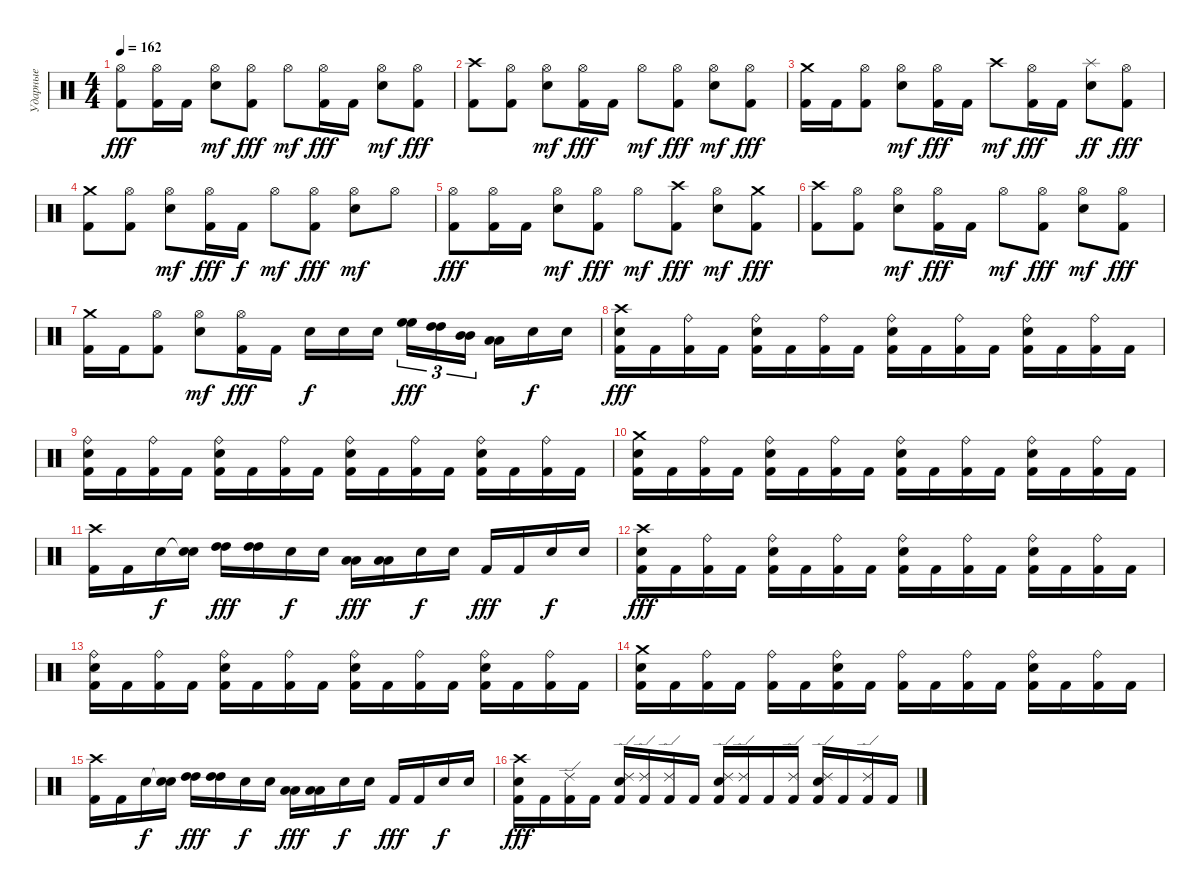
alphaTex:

\track ("Ударные" "Ударные") {instrument percussion}
\staff {score}
\articulation defaults
\ts (4 4)
\tempo 162
\clef neutral
\ks c
("Hi-Hat (open)" "Kick (hit) 2").8{dy fff} ("Hi-Hat (open)" "Kick (hit) 2").16 "Kick (hit) 2".16 ("Hi-Hat (open)" "Electric Snare (hit)").8{dy mf} ("Hi-Hat (open)" "Kick (hit) 2").8{dy fff} "Hi-Hat (open)".8{dy mf} ("Hi-Hat (open)" "Kick (hit) 2").16{dy fff} "Kick (hit) 2".16 ("Hi-Hat (open)" "Electric Snare (hit)").8{dy mf} ("Hi-Hat (open)" "Kick (hit) 2").8{dy fff} |
("Crash high (hit)" "Kick (hit) 2").8 ("Hi-Hat (open)" "Kick (hit) 2").8 ("Hi-Hat (open)" "Electric Snare (hit)").8{dy mf} ("Hi-Hat (open)" "Kick (hit) 2").16{dy fff} "Kick (hit) 2".16 "Hi-Hat (open)".8{dy mf} ("Hi-Hat (open)" "Kick (hit) 2").8{dy fff} ("Hi-Hat (open)" "Electric Snare (hit)").8{dy mf} ("Hi-Hat (open)" "Kick (hit) 2").8{dy fff} |
("Crash medium (hit)" "Kick (hit) 2").16 "Kick (hit) 2".16 ("Hi-Hat (open)" "Kick (hit) 2").8 ("Hi-Hat (open)" "Electric Snare (hit)").8{dy mf} ("Hi-Hat (open)" "Kick (hit) 2").16{dy fff} "Kick (hit) 2".16 "Crash high (hit)".8{dy mf} ("Hi-Hat (open)" "Kick (hit) 2").16{dy fff} "Kick (hit) 2".16 ("Splash (hit)" "Electric Snare (hit)").8{dy ff} ("Hi-Hat (open)" "Kick (hit) 2").8{dy fff} |
("Crash medium (hit)" "Kick (hit) 2").8 ("Hi-Hat (open)" "Kick (hit) 2").8 ("Hi-Hat (open)" "Electric Snare (hit)").8{dy mf} ("Hi-Hat (open)" "Kick (hit) 2").16{dy fff} "Kick (hit) 2".16{dy f} "Hi-Hat (open)".8{dy mf} ("Hi-Hat (open)" "Kick (hit) 2").8{dy fff} ("Hi-Hat (open)" "Electric Snare (hit)").8{dy mf} "Hi-Hat (open)".8 |
("Hi-Hat (open)" "Kick (hit) 2").8{dy fff} ("Hi-Hat (open)" "Kick (hit) 2").16 "Kick (hit) 2".16 ("Hi-Hat (open)" "Electric Snare (hit)").8{dy mf} ("Hi-Hat (open)" "Kick (hit) 2").8{dy fff} "Hi-Hat (open)".8{dy mf} ("Crash high (hit)" "Kick (hit) 2").8{dy fff} ("Hi-Hat (open)" "Electric Snare (hit)").8{dy mf} ("Crash medium (hit)" "Kick (hit) 2").8{dy fff} |
("Crash high (hit)" "Kick (hit) 2").8 ("Hi-Hat (open)" "Kick (hit) 2").8 ("Hi-Hat (open)" "Electric Snare (hit)").8{dy mf} ("Hi-Hat (open)" "Kick (hit) 2").16{dy fff} "Kick (hit) 2".16 "Hi-Hat (open)".8{dy mf} ("Hi-Hat (open)" "Kick (hit) 2").8{dy fff} ("Hi-Hat (open)" "Electric Snare (hit)").8{dy mf} ("Hi-Hat (open)" "Kick (hit) 2").8{dy fff} |
("Crash medium (hit)" "Kick (hit) 2").16 "Kick (hit) 2".16 ("Hi-Hat (open)" "Kick (hit) 2").8 ("Hi-Hat (open)" "Electric Snare (hit)").8{dy mf} ("Hi-Hat (open)" "Kick (hit) 2").16{dy fff} "Kick (hit) 2".16 "Electric Snare (hit)".16{dy f} "Electric Snare (hit)".16 "Electric Snare (hit)".16 ("High Floor Tom (hit)" "High Floor Tom (hit)").16{tu (3 2) dy fff} ("High Tom (hit)" "High Tom (hit)").16{tu (3 2)} ("Mid Tom (hit)" "Mid Tom (hit)").16{tu (3 2)} ("Low Tom (hit)" "Low Tom (hit)").16 "Electric Snare (hit)".16{dy f} "Electric Snare (hit)".16 |
("Crash high (hit)" "Electric Snare (hit)" "Kick (hit) 2").16{dy fff} "Kick (hit) 2".16 ("Ride (bell)" "Kick (hit) 2").16 "Kick (hit) 2".16 ("Ride (bell)" "Electric Snare (hit)" "Kick (hit) 2").16 "Kick (hit) 2".16 ("Ride (bell)" "Kick (hit) 2").16 "Kick (hit) 2".16 ("Ride (bell)" "Electric Snare (hit)" "Kick (hit) 2").16 "Kick (hit) 2".16 ("Ride (bell)" "Kick (hit) 2").16 "Kick (hit) 2".16 ("Ride (bell)" "Electric Snare (hit)" "Kick (hit) 2").16 "Kick (hit) 2".16 ("Ride (bell)" "Kick (hit) 2").16 "Kick (hit) 2".16 |
("Ride (bell)" "Electric Snare (hit)" "Kick (hit) 2").16 "Kick (hit) 2".16 ("Ride (bell)" "Kick (hit) 2").16 "Kick (hit) 2".16 ("Ride (bell)" "Electric Snare (hit)" "Kick (hit) 2").16 "Kick (hit) 2".16 ("Ride (bell)" "Kick (hit) 2").16 "Kick (hit) 2".16 ("Ride (bell)" "Electric Snare (hit)" "Kick (hit) 2").16 "Kick (hit) 2".16 ("Ride (bell)" "Kick (hit) 2").16 "Kick (hit) 2".16 ("Ride (bell)" "Electric Snare (hit)" "Kick (hit) 2").16 "Kick (hit) 2".16 ("Ride (bell)" "Kick (hit) 2").16 "Kick (hit) 2".16 |
("Crash medium (hit)" "Electric Snare (hit)" "Kick (hit) 2").16 "Kick (hit) 2".16 ("Ride (bell)" "Kick (hit) 2").16 "Kick (hit) 2".16 ("Ride (bell)" "Electric Snare (hit)" "Kick (hit) 2").16 "Kick (hit) 2".16 ("Ride (bell)" "Kick (hit) 2").16 "Kick (hit) 2".16 ("Ride (bell)" "Electric Snare (hit)" "Kick (hit) 2").16 "Kick (hit) 2".16 ("Ride (bell)" "Kick (hit) 2").16 "Kick (hit) 2".16 ("Ride (bell)" "Electric Snare (hit)" "Kick (hit) 2").16 "Kick (hit) 2".16 ("Ride (bell)" "Kick (hit) 2").16 "Kick (hit) 2".16 |
("Crash high (hit)" "Kick (hit) 2").16 "Kick (hit) 2".16 "Electric Snare (hit)".16{dy f} ("Snare (hit)"{t} "Electric Snare (hit)").16 ("High Tom (hit)" "High Tom (hit)").16{dy fff} ("High Tom (hit)" "High Tom (hit)").16 "Electric Snare (hit)".16{dy f} "Electric Snare (hit)".16 ("Low Tom (hit)" "Low Tom (hit)").16{dy fff} ("Low Tom (hit)" "Low Tom (hit)").16 "Electric Snare (hit)".16{dy f} "Electric Snare (hit)".16 "Kick (hit) 2".16{dy fff} "Kick (hit) 2".16 "Electric Snare (hit)".16{dy f} "Electric Snare (hit)".16 |
("Crash high (hit)" "Electric Snare (hit)" "Kick (hit) 2").16{dy fff} "Kick (hit) 2".16 ("Ride (bell)" "Kick (hit) 2").16 "Kick (hit) 2".16 ("Ride (bell)" "Electric Snare (hit)" "Kick (hit) 2").16 "Kick (hit) 2".16 ("Ride (bell)" "Kick (hit) 2").16 "Kick (hit) 2".16 ("Ride (bell)" "Electric Snare (hit)" "Kick (hit) 2").16 "Kick (hit) 2".16 ("Ride (bell)" "Kick (hit) 2").16 "Kick (hit) 2".16 ("Ride (bell)" "Electric Snare (hit)" "Kick (hit) 2").16 "Kick (hit) 2".16 ("Ride (bell)" "Kick (hit) 2").16 "Kick (hit) 2".16 |
("Ride (bell)" "Electric Snare (hit)" "Kick (hit) 2").16 "Kick (hit) 2".16 ("Ride (bell)" "Kick (hit) 2").16 "Kick (hit) 2".16 ("Ride (bell)" "Electric Snare (hit)" "Kick (hit) 2").16 "Kick (hit) 2".16 ("Ride (bell)" "Kick (hit) 2").16 "Kick (hit) 2".16 ("Ride (bell)" "Electric Snare (hit)" "Kick (hit) 2").16 "Kick (hit) 2".16 ("Ride (bell)" "Kick (hit) 2").16 "Kick (hit) 2".16 ("Ride (bell)" "Electric Snare (hit)" "Kick (hit) 2").16 "Kick (hit) 2".16 ("Ride (bell)" "Kick (hit) 2").16 "Kick (hit) 2".16 |
("Crash medium (hit)" "Electric Snare (hit)" "Kick (hit) 2").16 "Kick (hit) 2".16 ("Ride (bell)" "Kick (hit) 2").16 "Kick (hit) 2".16 ("Ride (bell)" "Kick (hit) 2").16 "Kick (hit) 2".16 ("Ride (bell)" "Electric Snare (hit)" "Kick (hit) 2").16 "Kick (hit) 2".16 ("Ride (bell)" "Kick (hit) 2").16 "Kick (hit) 2".16 ("Ride (bell)" "Kick (hit) 2").16 "Kick (hit) 2".16 ("Ride (bell)" "Electric Snare (hit)" "Kick (hit) 2").16 "Kick (hit) 2".16 ("Ride (bell)" "Kick (hit) 2").16 "Kick (hit) 2".16 |
("Crash high (hit)" "Kick (hit) 2").16 "Kick (hit) 2".16 "Electric Snare (hit)".16{dy f} ("Snare (hit)"{t} "Electric Snare (hit)").16 ("High Tom (hit)" "High Tom (hit)").16{dy fff} ("High Tom (hit)" "High Tom (hit)").16 "Electric Snare (hit)".16{dy f} "Electric Snare (hit)".16 ("Low Tom (hit)" "Low Tom (hit)").16{dy fff} ("Low Tom (hit)" "Low Tom (hit)").16 "Electric Snare (hit)".16{dy f} "Electric Snare (hit)".16 "Kick (hit) 2".16{dy fff} "Kick (hit) 2".16 "Electric Snare (hit)".16{dy f} "Electric Snare (hit)".16 |
("Crash high (hit)" "Electric Snare (hit)" "Kick (hit) 2").16{dy fff} "Kick (hit) 2".16 ("Ride (edge) 2" "Kick (hit) 2").16 "Kick (hit) 2".16 ("Ride (edge) 2" "Electric Snare (hit)" "Kick (hit) 2").16 ("Ride (edge) 2" "Kick (hit) 2").16 ("Ride (edge) 2" "Kick (hit) 2").16 "Kick (hit) 2".16 ("Ride (edge) 2" "Electric Snare (hit)" "Kick (hit) 2").16 ("Ride (edge) 2" "Kick (hit) 2").16 "Kick (hit) 2".16 ("Ride (edge) 2" "Kick (hit) 2").16 ("Ride (edge) 2" "Electric Snare (hit)" "Kick (hit) 2").16 "Kick (hit) 2".16 ("Ride (edge) 2" "Kick (hit) 2").16 "Kick (hit) 2".16
